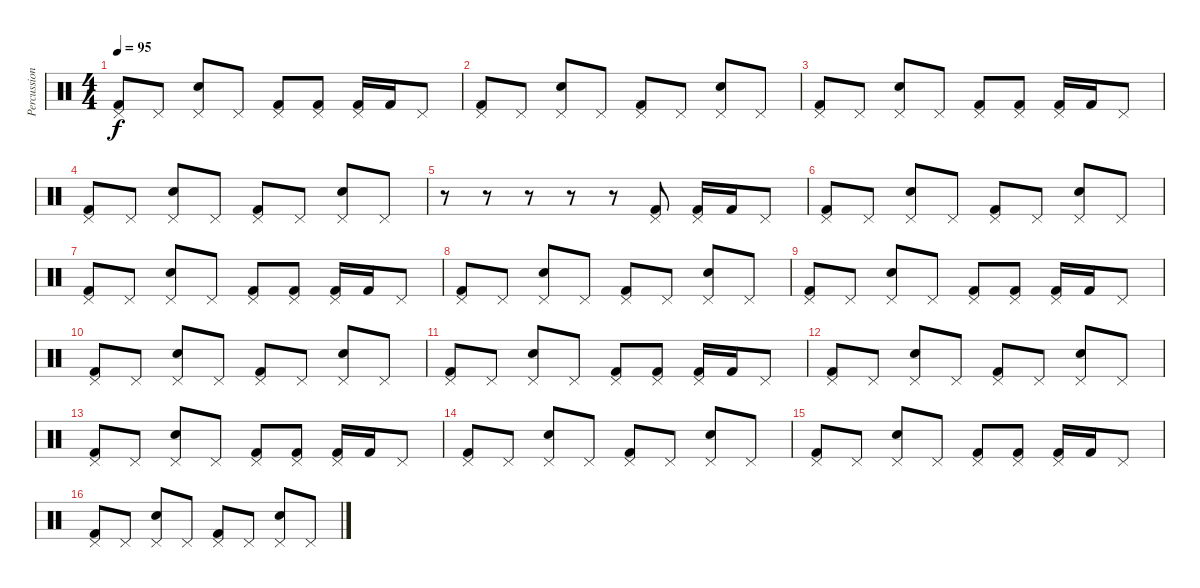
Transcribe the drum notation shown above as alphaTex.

\track ("Percussions" "Percussion") {instrument percussion}
\staff {score}
\articulation defaults
\ts (4 4)
\tempo 95
\clef neutral
\ks c
("Pedal Hi-Hat (hit)" "Kick (hit) 2").8{dy f} "Pedal Hi-Hat (hit)".8 ("Pedal Hi-Hat (hit)" "Electric Snare (hit)").8 "Pedal Hi-Hat (hit)".8 ("Pedal Hi-Hat (hit)" "Kick (hit) 2").8 ("Pedal Hi-Hat (hit)" "Kick (hit) 2").8 ("Pedal Hi-Hat (hit)" "Kick (hit) 2").16 "Kick (hit) 2".16 "Pedal Hi-Hat (hit)".8 |
("Pedal Hi-Hat (hit)" "Kick (hit) 2").8 "Pedal Hi-Hat (hit)".8 ("Pedal Hi-Hat (hit)" "Electric Snare (hit)").8 "Pedal Hi-Hat (hit)".8 ("Pedal Hi-Hat (hit)" "Kick (hit) 2").8 "Pedal Hi-Hat (hit)".8 ("Pedal Hi-Hat (hit)" "Electric Snare (hit)").8 "Pedal Hi-Hat (hit)".8 |
("Pedal Hi-Hat (hit)" "Kick (hit) 2").8 "Pedal Hi-Hat (hit)".8 ("Pedal Hi-Hat (hit)" "Electric Snare (hit)").8 "Pedal Hi-Hat (hit)".8 ("Pedal Hi-Hat (hit)" "Kick (hit) 2").8 ("Pedal Hi-Hat (hit)" "Kick (hit) 2").8 ("Pedal Hi-Hat (hit)" "Kick (hit) 2").16 "Kick (hit) 2".16 "Pedal Hi-Hat (hit)".8 |
("Pedal Hi-Hat (hit)" "Kick (hit) 2").8 "Pedal Hi-Hat (hit)".8 ("Pedal Hi-Hat (hit)" "Electric Snare (hit)").8 "Pedal Hi-Hat (hit)".8 ("Pedal Hi-Hat (hit)" "Kick (hit) 2").8 "Pedal Hi-Hat (hit)".8 ("Pedal Hi-Hat (hit)" "Electric Snare (hit)").8 "Pedal Hi-Hat (hit)".8 |
r.8 r.8 r.8 r.8 r.8 ("Pedal Hi-Hat (hit)" "Kick (hit) 2").8 ("Pedal Hi-Hat (hit)" "Kick (hit) 2").16 "Kick (hit) 2".16 "Pedal Hi-Hat (hit)".8 |
("Pedal Hi-Hat (hit)" "Kick (hit) 2").8 "Pedal Hi-Hat (hit)".8 ("Pedal Hi-Hat (hit)" "Electric Snare (hit)").8 "Pedal Hi-Hat (hit)".8 ("Pedal Hi-Hat (hit)" "Kick (hit) 2").8 "Pedal Hi-Hat (hit)".8 ("Pedal Hi-Hat (hit)" "Electric Snare (hit)").8 "Pedal Hi-Hat (hit)".8 |
("Pedal Hi-Hat (hit)" "Kick (hit) 2").8 "Pedal Hi-Hat (hit)".8 ("Pedal Hi-Hat (hit)" "Electric Snare (hit)").8 "Pedal Hi-Hat (hit)".8 ("Pedal Hi-Hat (hit)" "Kick (hit) 2").8 ("Pedal Hi-Hat (hit)" "Kick (hit) 2").8 ("Pedal Hi-Hat (hit)" "Kick (hit) 2").16 "Kick (hit) 2".16 "Pedal Hi-Hat (hit)".8 |
("Pedal Hi-Hat (hit)" "Kick (hit) 2").8 "Pedal Hi-Hat (hit)".8 ("Pedal Hi-Hat (hit)" "Electric Snare (hit)").8 "Pedal Hi-Hat (hit)".8 ("Pedal Hi-Hat (hit)" "Kick (hit) 2").8 "Pedal Hi-Hat (hit)".8 ("Pedal Hi-Hat (hit)" "Electric Snare (hit)").8 "Pedal Hi-Hat (hit)".8 |
("Pedal Hi-Hat (hit)" "Kick (hit) 2").8 "Pedal Hi-Hat (hit)".8 ("Pedal Hi-Hat (hit)" "Electric Snare (hit)").8 "Pedal Hi-Hat (hit)".8 ("Pedal Hi-Hat (hit)" "Kick (hit) 2").8 ("Pedal Hi-Hat (hit)" "Kick (hit) 2").8 ("Pedal Hi-Hat (hit)" "Kick (hit) 2").16 "Kick (hit) 2".16 "Pedal Hi-Hat (hit)".8 |
("Pedal Hi-Hat (hit)" "Kick (hit) 2").8 "Pedal Hi-Hat (hit)".8 ("Pedal Hi-Hat (hit)" "Electric Snare (hit)").8 "Pedal Hi-Hat (hit)".8 ("Pedal Hi-Hat (hit)" "Kick (hit) 2").8 "Pedal Hi-Hat (hit)".8 ("Pedal Hi-Hat (hit)" "Electric Snare (hit)").8 "Pedal Hi-Hat (hit)".8 |
("Pedal Hi-Hat (hit)" "Kick (hit) 2").8 "Pedal Hi-Hat (hit)".8 ("Pedal Hi-Hat (hit)" "Electric Snare (hit)").8 "Pedal Hi-Hat (hit)".8 ("Pedal Hi-Hat (hit)" "Kick (hit) 2").8 ("Pedal Hi-Hat (hit)" "Kick (hit) 2").8 ("Pedal Hi-Hat (hit)" "Kick (hit) 2").16 "Kick (hit) 2".16 "Pedal Hi-Hat (hit)".8 |
("Pedal Hi-Hat (hit)" "Kick (hit) 2").8 "Pedal Hi-Hat (hit)".8 ("Pedal Hi-Hat (hit)" "Electric Snare (hit)").8 "Pedal Hi-Hat (hit)".8 ("Pedal Hi-Hat (hit)" "Kick (hit) 2").8 "Pedal Hi-Hat (hit)".8 ("Pedal Hi-Hat (hit)" "Electric Snare (hit)").8 "Pedal Hi-Hat (hit)".8 |
("Pedal Hi-Hat (hit)" "Kick (hit) 2").8 "Pedal Hi-Hat (hit)".8 ("Pedal Hi-Hat (hit)" "Electric Snare (hit)").8 "Pedal Hi-Hat (hit)".8 ("Pedal Hi-Hat (hit)" "Kick (hit) 2").8 ("Pedal Hi-Hat (hit)" "Kick (hit) 2").8 ("Pedal Hi-Hat (hit)" "Kick (hit) 2").16 "Kick (hit) 2".16 "Pedal Hi-Hat (hit)".8 |
("Pedal Hi-Hat (hit)" "Kick (hit) 2").8 "Pedal Hi-Hat (hit)".8 ("Pedal Hi-Hat (hit)" "Electric Snare (hit)").8 "Pedal Hi-Hat (hit)".8 ("Pedal Hi-Hat (hit)" "Kick (hit) 2").8 "Pedal Hi-Hat (hit)".8 ("Pedal Hi-Hat (hit)" "Electric Snare (hit)").8 "Pedal Hi-Hat (hit)".8 |
("Pedal Hi-Hat (hit)" "Kick (hit) 2").8 "Pedal Hi-Hat (hit)".8 ("Pedal Hi-Hat (hit)" "Electric Snare (hit)").8 "Pedal Hi-Hat (hit)".8 ("Pedal Hi-Hat (hit)" "Kick (hit) 2").8 ("Pedal Hi-Hat (hit)" "Kick (hit) 2").8 ("Pedal Hi-Hat (hit)" "Kick (hit) 2").16 "Kick (hit) 2".16 "Pedal Hi-Hat (hit)".8 |
("Pedal Hi-Hat (hit)" "Kick (hit) 2").8 "Pedal Hi-Hat (hit)".8 ("Pedal Hi-Hat (hit)" "Electric Snare (hit)").8 "Pedal Hi-Hat (hit)".8 ("Pedal Hi-Hat (hit)" "Kick (hit) 2").8 "Pedal Hi-Hat (hit)".8 ("Pedal Hi-Hat (hit)" "Electric Snare (hit)").8 "Pedal Hi-Hat (hit)".8
